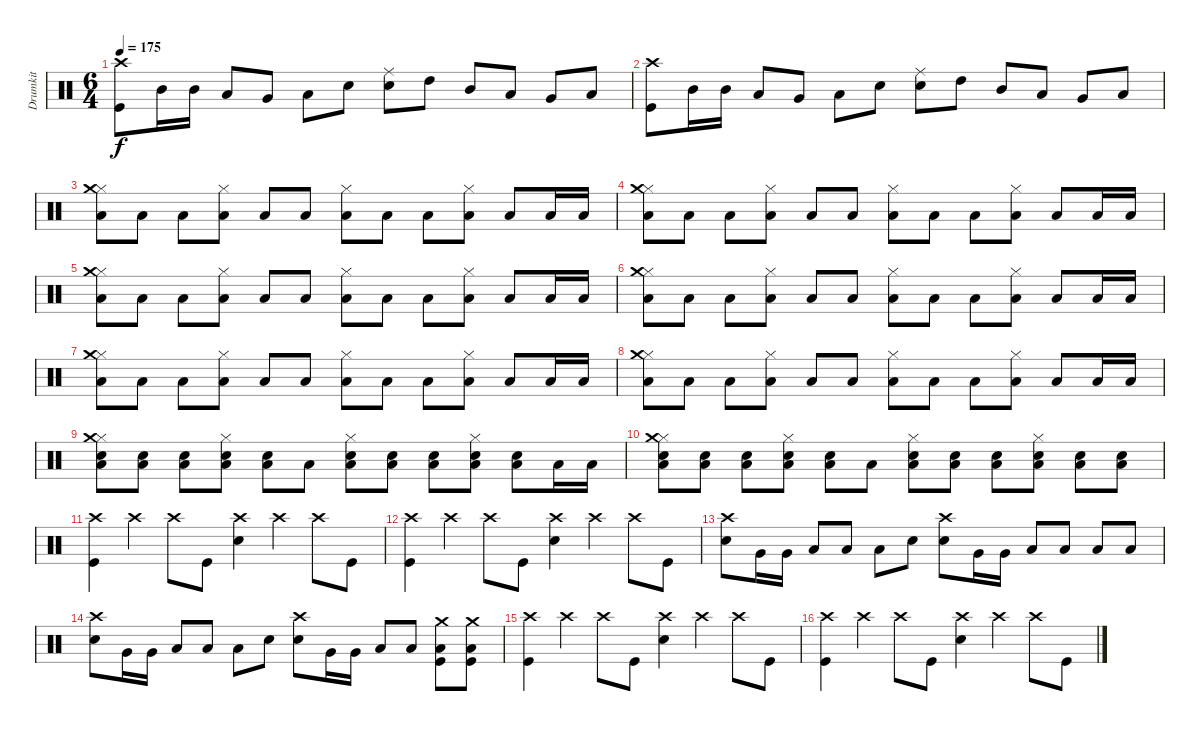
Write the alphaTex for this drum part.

\track ("Drumkit" "Drumkit") {instrument percussion}
\staff {score}
\articulation defaults
\ts (6 4)
\tempo 175
\clef neutral
\ks c
("Kick (hit)" "Crash high (hit)").8{dy f} "Mid Tom (hit)".16 "Mid Tom (hit)".16 "Low Tom (hit)".8 "Very Low Tom (hit)".8 "Low Floor Tom (hit)".8 "Snare (hit) 2".8 ("Snare (hit) 2" "Ride (middle)").8 "High Tom (hit)".8 "Mid Tom (hit)".8 "Low Tom (hit)".8 "Very Low Tom (hit)".8 "Low Floor Tom (hit)".8 |
("Kick (hit)" "Crash high (hit)").8 "Mid Tom (hit)".16 "Mid Tom (hit)".16 "Low Tom (hit)".8 "Very Low Tom (hit)".8 "Low Floor Tom (hit)".8 "Snare (hit) 2".8 ("Snare (hit) 2" "Ride (middle)").8 "High Tom (hit)".8 "Mid Tom (hit)".8 "Low Tom (hit)".8 "Very Low Tom (hit)".8 "Low Floor Tom (hit)".8 |
("Low Floor Tom (hit)" "Hi-Hat (closed)" "Crash medium (hit)").8 "Low Floor Tom (hit)".8 "Low Floor Tom (hit)".8 ("Low Floor Tom (hit)" "Hi-Hat (closed)").8 "Low Floor Tom (hit)".8 "Low Floor Tom (hit)".8 ("Low Floor Tom (hit)" "Hi-Hat (closed)").8 "Low Floor Tom (hit)".8 "Low Floor Tom (hit)".8 ("Low Floor Tom (hit)" "Hi-Hat (closed)").8 "Low Floor Tom (hit)".8 "Low Floor Tom (hit)".16 "Low Floor Tom (hit)".16 |
("Low Floor Tom (hit)" "Hi-Hat (closed)" "Crash medium (hit)").8 "Low Floor Tom (hit)".8 "Low Floor Tom (hit)".8 ("Low Floor Tom (hit)" "Hi-Hat (closed)").8 "Low Floor Tom (hit)".8 "Low Floor Tom (hit)".8 ("Low Floor Tom (hit)" "Hi-Hat (closed)").8 "Low Floor Tom (hit)".8 "Low Floor Tom (hit)".8 ("Low Floor Tom (hit)" "Hi-Hat (closed)").8 "Low Floor Tom (hit)".8 "Low Floor Tom (hit)".16 "Low Floor Tom (hit)".16 |
("Low Floor Tom (hit)" "Hi-Hat (closed)" "Crash medium (hit)").8 "Low Floor Tom (hit)".8 "Low Floor Tom (hit)".8 ("Low Floor Tom (hit)" "Hi-Hat (closed)").8 "Low Floor Tom (hit)".8 "Low Floor Tom (hit)".8 ("Low Floor Tom (hit)" "Hi-Hat (closed)").8 "Low Floor Tom (hit)".8 "Low Floor Tom (hit)".8 ("Low Floor Tom (hit)" "Hi-Hat (closed)").8 "Low Floor Tom (hit)".8 "Low Floor Tom (hit)".16 "Low Floor Tom (hit)".16 |
("Low Floor Tom (hit)" "Hi-Hat (closed)" "Crash medium (hit)").8 "Low Floor Tom (hit)".8 "Low Floor Tom (hit)".8 ("Low Floor Tom (hit)" "Hi-Hat (closed)").8 "Low Floor Tom (hit)".8 "Low Floor Tom (hit)".8 ("Low Floor Tom (hit)" "Hi-Hat (closed)").8 "Low Floor Tom (hit)".8 "Low Floor Tom (hit)".8 ("Low Floor Tom (hit)" "Hi-Hat (closed)").8 "Low Floor Tom (hit)".8 "Low Floor Tom (hit)".16 "Low Floor Tom (hit)".16 |
("Low Floor Tom (hit)" "Hi-Hat (closed)" "Crash medium (hit)").8 "Low Floor Tom (hit)".8 "Low Floor Tom (hit)".8 ("Low Floor Tom (hit)" "Hi-Hat (closed)").8 "Low Floor Tom (hit)".8 "Low Floor Tom (hit)".8 ("Low Floor Tom (hit)" "Hi-Hat (closed)").8 "Low Floor Tom (hit)".8 "Low Floor Tom (hit)".8 ("Low Floor Tom (hit)" "Hi-Hat (closed)").8 "Low Floor Tom (hit)".8 "Low Floor Tom (hit)".16 "Low Floor Tom (hit)".16 |
("Low Floor Tom (hit)" "Hi-Hat (closed)" "Crash medium (hit)").8 "Low Floor Tom (hit)".8 "Low Floor Tom (hit)".8 ("Low Floor Tom (hit)" "Hi-Hat (closed)").8 "Low Floor Tom (hit)".8 "Low Floor Tom (hit)".8 ("Low Floor Tom (hit)" "Hi-Hat (closed)").8 "Low Floor Tom (hit)".8 "Low Floor Tom (hit)".8 ("Low Floor Tom (hit)" "Hi-Hat (closed)").8 "Low Floor Tom (hit)".8 "Low Floor Tom (hit)".16 "Low Floor Tom (hit)".16 |
("Low Floor Tom (hit)" "Hi-Hat (closed)" "Crash medium (hit)" "Snare (hit) 2").8 ("Low Floor Tom (hit)" "Snare (hit) 2").8 ("Low Floor Tom (hit)" "Snare (hit) 2").8 ("Low Floor Tom (hit)" "Hi-Hat (closed)" "Snare (hit) 2").8 ("Low Floor Tom (hit)" "Snare (hit) 2").8 "Low Floor Tom (hit)".8 ("Low Floor Tom (hit)" "Hi-Hat (closed)" "Snare (hit) 2").8 ("Low Floor Tom (hit)" "Snare (hit) 2").8 ("Low Floor Tom (hit)" "Snare (hit) 2").8 ("Low Floor Tom (hit)" "Hi-Hat (closed)" "Snare (hit) 2").8 ("Low Floor Tom (hit)" "Snare (hit) 2").8 "Low Floor Tom (hit)".16 "Low Floor Tom (hit)".16 |
("Low Floor Tom (hit)" "Hi-Hat (closed)" "Crash medium (hit)" "Snare (hit) 2").8 ("Low Floor Tom (hit)" "Snare (hit) 2").8 ("Low Floor Tom (hit)" "Snare (hit) 2").8 ("Low Floor Tom (hit)" "Hi-Hat (closed)" "Snare (hit) 2").8 ("Low Floor Tom (hit)" "Snare (hit) 2").8 "Low Floor Tom (hit)".8 ("Low Floor Tom (hit)" "Hi-Hat (closed)" "Snare (hit) 2").8 ("Low Floor Tom (hit)" "Snare (hit) 2").8 ("Low Floor Tom (hit)" "Snare (hit) 2").8 ("Low Floor Tom (hit)" "Hi-Hat (closed)" "Snare (hit) 2").8 ("Low Floor Tom (hit)" "Snare (hit) 2").8 ("Low Floor Tom (hit)" "Snare (hit) 2").8 |
("Kick (hit)" "Crash high (hit)").4 "Crash high (hit)".4 "Crash high (hit)".8 "Kick (hit)".8 ("Snare (hit) 2" "Crash high (hit)").4 "Crash high (hit)".4 "Crash high (hit)".8 "Kick (hit)".8 |
("Kick (hit)" "Crash high (hit)").4 "Crash high (hit)".4 "Crash high (hit)".8 "Kick (hit)".8 ("Snare (hit) 2" "Crash high (hit)").4 "Crash high (hit)".4 "Crash high (hit)".8 "Kick (hit)".8 |
("Snare (hit) 2" "Crash high (hit)").8 "Very Low Tom (hit)".16 "Very Low Tom (hit)".16 "Low Floor Tom (hit)".8 "Low Floor Tom (hit)".8 "Low Floor Tom (hit)".8 "Snare (hit) 2".8 ("Snare (hit) 2" "Crash high (hit)").8 "Very Low Tom (hit)".16 "Very Low Tom (hit)".16 "Low Floor Tom (hit)".8 "Low Floor Tom (hit)".8 "Low Floor Tom (hit)".8 "Low Floor Tom (hit)".8 |
("Snare (hit) 2" "Crash high (hit)").8 "Very Low Tom (hit)".16 "Very Low Tom (hit)".16 "Low Floor Tom (hit)".8 "Low Floor Tom (hit)".8 "Low Floor Tom (hit)".8 "Snare (hit) 2".8 ("Snare (hit) 2" "Crash high (hit)").8 "Very Low Tom (hit)".16 "Very Low Tom (hit)".16 "Low Floor Tom (hit)".8 "Low Floor Tom (hit)".8 ("Low Floor Tom (hit)" "Crash medium (hit)" "Kick (hit)").8 ("Low Floor Tom (hit)" "Crash medium (hit)" "Kick (hit)").8 |
("Kick (hit)" "Crash high (hit)").4 "Crash high (hit)".4 "Crash high (hit)".8 "Kick (hit)".8 ("Snare (hit) 2" "Crash high (hit)").4 "Crash high (hit)".4 "Crash high (hit)".8 "Kick (hit)".8 |
("Kick (hit)" "Crash high (hit)").4 "Crash high (hit)".4 "Crash high (hit)".8 "Kick (hit)".8 ("Snare (hit) 2" "Crash high (hit)").4 "Crash high (hit)".4 "Crash high (hit)".8 "Kick (hit)".8
